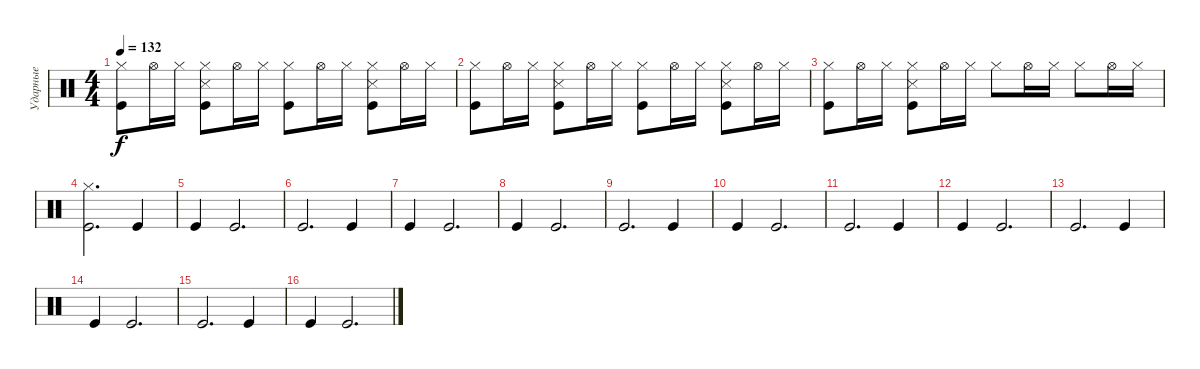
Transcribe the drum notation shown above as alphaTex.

\track ("Ударные" "Ударные") {instrument percussion}
\staff {score}
\articulation defaults
\ts (4 4)
\tempo 132
\clef neutral
\ks c
("Kick (hit)" "Hi-Hat (closed)").8{dy f} "Hi-Hat (open)".16 "Hi-Hat (closed)".16 ("Hi-Hat (closed)" "Kick (hit)" "Snare (side stick) 3").8 "Hi-Hat (open)".16 "Hi-Hat (closed)".16 ("Kick (hit)" "Hi-Hat (closed)").8 "Hi-Hat (open)".16 "Hi-Hat (closed)".16 ("Hi-Hat (closed)" "Kick (hit)" "Snare (side stick) 3").8 "Hi-Hat (open)".16 "Hi-Hat (closed)".16 |
("Kick (hit)" "Hi-Hat (closed)").8 "Hi-Hat (open)".16 "Hi-Hat (closed)".16 ("Hi-Hat (closed)" "Kick (hit)" "Snare (side stick) 3").8 "Hi-Hat (open)".16 "Hi-Hat (closed)".16 ("Kick (hit)" "Hi-Hat (closed)").8 "Hi-Hat (open)".16 "Hi-Hat (closed)".16 ("Hi-Hat (closed)" "Kick (hit)" "Snare (side stick) 3").8 "Hi-Hat (open)".16 "Hi-Hat (closed)".16 |
("Kick (hit)" "Hi-Hat (closed)").8 "Hi-Hat (open)".16 "Hi-Hat (closed)".16 ("Hi-Hat (closed)" "Kick (hit)" "Snare (side stick) 3").8 "Hi-Hat (open)".16 "Hi-Hat (closed)".16 "Hi-Hat (closed)".8 "Hi-Hat (open)".16 "Hi-Hat (closed)".16 "Hi-Hat (closed)".8 "Hi-Hat (open)".16 "Hi-Hat (closed)".16 |
("Kick (hit)" "Hi-Hat (closed)").2{d} "Kick (hit)".4 |
"Kick (hit)".4 "Kick (hit)".2{d} |
"Kick (hit)".2{d} "Kick (hit)".4 |
"Kick (hit)".4 "Kick (hit)".2{d} |
"Kick (hit)".4 "Kick (hit)".2{d} |
"Kick (hit)".2{d} "Kick (hit)".4 |
"Kick (hit)".4 "Kick (hit)".2{d} |
"Kick (hit)".2{d} "Kick (hit)".4 |
"Kick (hit)".4 "Kick (hit)".2{d} |
"Kick (hit)".2{d} "Kick (hit)".4 |
"Kick (hit)".4 "Kick (hit)".2{d} |
"Kick (hit)".2{d} "Kick (hit)".4 |
"Kick (hit)".4 "Kick (hit)".2{d}
